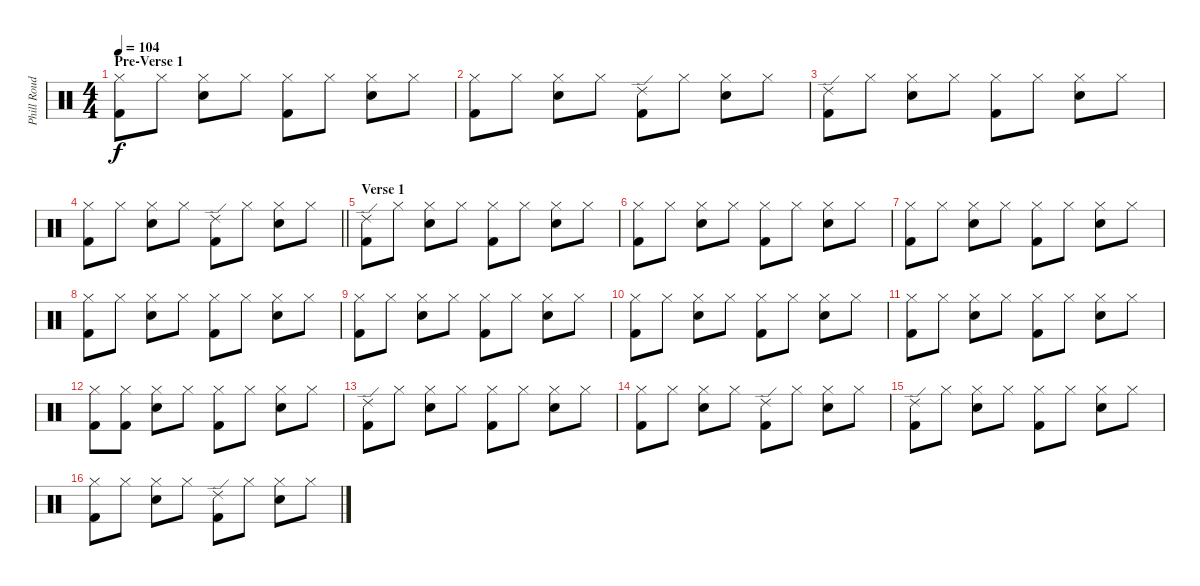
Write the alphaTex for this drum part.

\track ("Phill Roud" "Phill Roud") {instrument percussion}
\staff {score}
\articulation defaults
\ts (4 4)
\section ("" "Pre-Verse 1")
\tempo 104
\clef neutral
\ks c
("Hi-Hat (closed)" "Kick (hit) 2").8{dy f} "Hi-Hat (closed)".8 ("Hi-Hat (closed)" "Snare (hit) 2").8 "Hi-Hat (closed)".8 ("Hi-Hat (closed)" "Kick (hit) 2").8 "Hi-Hat (closed)".8 ("Hi-Hat (closed)" "Snare (hit) 2").8 "Hi-Hat (closed)".8 |
("Hi-Hat (closed)" "Kick (hit) 2").8 "Hi-Hat (closed)".8 ("Hi-Hat (closed)" "Snare (hit) 2").8 "Hi-Hat (closed)".8 ("Kick (hit) 2" "Ride (edge) 2").8 "Hi-Hat (closed)".8 ("Hi-Hat (closed)" "Snare (hit) 2").8 "Hi-Hat (closed)".8 |
("Kick (hit) 2" "Ride (edge) 2").8 "Hi-Hat (closed)".8 ("Hi-Hat (closed)" "Snare (hit) 2").8 "Hi-Hat (closed)".8 ("Hi-Hat (closed)" "Kick (hit) 2").8 "Hi-Hat (closed)".8 ("Hi-Hat (closed)" "Snare (hit) 2").8 "Hi-Hat (closed)".8 |
\barLineRight lightlight
("Hi-Hat (closed)" "Kick (hit) 2").8 "Hi-Hat (closed)".8 ("Hi-Hat (closed)" "Snare (hit) 2").8 "Hi-Hat (closed)".8 ("Kick (hit) 2" "Ride (edge) 2").8 "Hi-Hat (closed)".8 ("Hi-Hat (closed)" "Snare (hit) 2").8 "Hi-Hat (closed)".8 |
\section ("" "Verse 1")
("Kick (hit) 2" "Ride (edge) 2").8 "Hi-Hat (closed)".8 ("Hi-Hat (closed)" "Snare (hit) 2").8 "Hi-Hat (closed)".8 ("Hi-Hat (closed)" "Kick (hit) 2").8 "Hi-Hat (closed)".8 ("Hi-Hat (closed)" "Snare (hit) 2").8 "Hi-Hat (closed)".8 |
("Hi-Hat (closed)" "Kick (hit) 2").8 "Hi-Hat (closed)".8 ("Hi-Hat (closed)" "Snare (hit) 2").8 "Hi-Hat (closed)".8 ("Hi-Hat (closed)" "Kick (hit) 2").8 "Hi-Hat (closed)".8 ("Hi-Hat (closed)" "Snare (hit) 2").8 "Hi-Hat (closed)".8 |
("Hi-Hat (closed)" "Kick (hit) 2").8 "Hi-Hat (closed)".8 ("Hi-Hat (closed)" "Snare (hit) 2").8 "Hi-Hat (closed)".8 ("Hi-Hat (closed)" "Kick (hit) 2").8 "Hi-Hat (closed)".8 ("Hi-Hat (closed)" "Snare (hit) 2").8 "Hi-Hat (closed)".8 |
("Hi-Hat (closed)" "Kick (hit) 2").8 "Hi-Hat (closed)".8 ("Hi-Hat (closed)" "Snare (hit) 2").8 "Hi-Hat (closed)".8 ("Hi-Hat (closed)" "Kick (hit) 2").8 "Hi-Hat (closed)".8 ("Hi-Hat (closed)" "Snare (hit) 2").8 "Hi-Hat (closed)".8 |
("Hi-Hat (closed)" "Kick (hit) 2").8 "Hi-Hat (closed)".8 ("Hi-Hat (closed)" "Snare (hit) 2").8 "Hi-Hat (closed)".8 ("Hi-Hat (closed)" "Kick (hit) 2").8 "Hi-Hat (closed)".8 ("Hi-Hat (closed)" "Snare (hit) 2").8 "Hi-Hat (closed)".8 |
("Hi-Hat (closed)" "Kick (hit) 2").8 "Hi-Hat (closed)".8 ("Hi-Hat (closed)" "Snare (hit) 2").8 "Hi-Hat (closed)".8 ("Hi-Hat (closed)" "Kick (hit) 2").8 "Hi-Hat (closed)".8 ("Hi-Hat (closed)" "Snare (hit) 2").8 "Hi-Hat (closed)".8 |
("Hi-Hat (closed)" "Kick (hit) 2").8 "Hi-Hat (closed)".8 ("Hi-Hat (closed)" "Snare (hit) 2").8 "Hi-Hat (closed)".8 ("Hi-Hat (closed)" "Kick (hit) 2").8 "Hi-Hat (closed)".8 ("Hi-Hat (closed)" "Snare (hit) 2").8 "Hi-Hat (closed)".8 |
("Hi-Hat (closed)" "Kick (hit) 2").8 ("Hi-Hat (closed)" "Kick (hit) 2").8 ("Hi-Hat (closed)" "Snare (hit) 2").8 "Hi-Hat (closed)".8 ("Hi-Hat (closed)" "Kick (hit) 2").8 "Hi-Hat (closed)".8 ("Hi-Hat (closed)" "Snare (hit) 2").8 "Hi-Hat (closed)".8 |
("Kick (hit) 2" "Ride (edge) 2").8 "Hi-Hat (closed)".8 ("Hi-Hat (closed)" "Snare (hit) 2").8 "Hi-Hat (closed)".8 ("Hi-Hat (closed)" "Kick (hit) 2").8 "Hi-Hat (closed)".8 ("Hi-Hat (closed)" "Snare (hit) 2").8 "Hi-Hat (closed)".8 |
("Hi-Hat (closed)" "Kick (hit) 2").8 "Hi-Hat (closed)".8 ("Hi-Hat (closed)" "Snare (hit) 2").8 "Hi-Hat (closed)".8 ("Kick (hit) 2" "Ride (edge) 2").8 "Hi-Hat (closed)".8 ("Hi-Hat (closed)" "Snare (hit) 2").8 "Hi-Hat (closed)".8 |
("Kick (hit) 2" "Ride (edge) 2").8 "Hi-Hat (closed)".8 ("Hi-Hat (closed)" "Snare (hit) 2").8 "Hi-Hat (closed)".8 ("Hi-Hat (closed)" "Kick (hit) 2").8 "Hi-Hat (closed)".8 ("Hi-Hat (closed)" "Snare (hit) 2").8 "Hi-Hat (closed)".8 |
("Hi-Hat (closed)" "Kick (hit) 2").8 "Hi-Hat (closed)".8 ("Hi-Hat (closed)" "Snare (hit) 2").8 "Hi-Hat (closed)".8 ("Kick (hit) 2" "Ride (edge) 2").8 "Hi-Hat (closed)".8 ("Hi-Hat (closed)" "Snare (hit) 2").8 "Hi-Hat (closed)".8
